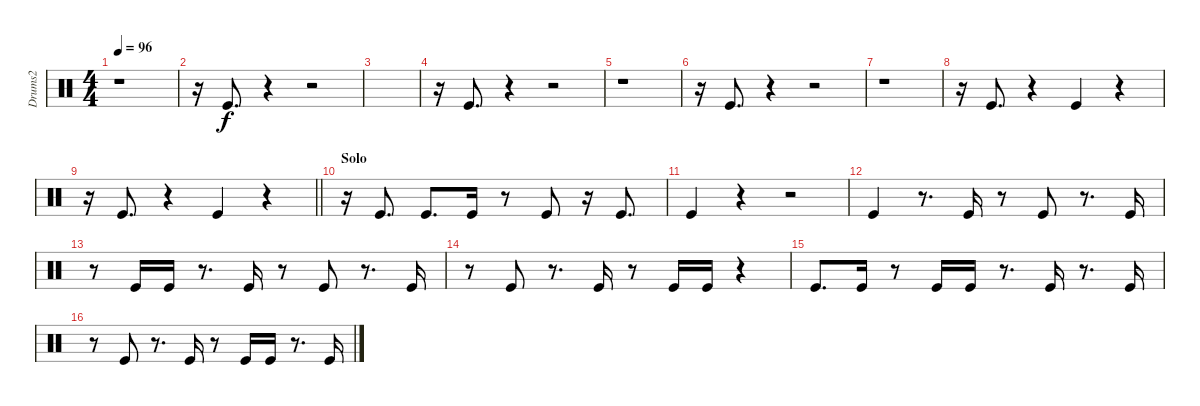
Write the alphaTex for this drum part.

\track ("Drums2" "Drums2") {instrument percussion}
\staff {score}
\articulation defaults
\ts (4 4)
\tempo 96
\clef neutral
\ks c
r.1{dy f} |
r.16 "Kick (hit)".8{d} r.4 r.2 |
|
r.16 "Kick (hit)".8{d} r.4 r.2 |
r.1 |
r.16 "Kick (hit)".8{d} r.4 r.2 |
r.1 |
r.16 "Kick (hit)".8{d} r.4 "Kick (hit)".4 r.4 |
\barLineRight lightlight
r.16 "Kick (hit)".8{d} r.4 "Kick (hit)".4 r.4 |
\section ("" "Solo")
r.16 "Kick (hit)".8{d} "Kick (hit)".8{d} "Kick (hit)".16 r.8 "Kick (hit)".8 r.16 "Kick (hit)".8{d} |
"Kick (hit)".4 r.4 r.2 |
"Kick (hit)".4 r.8{d} "Kick (hit)".16 r.8 "Kick (hit)".8 r.8{d} "Kick (hit)".16 |
r.8 "Kick (hit)".16 "Kick (hit)".16 r.8{d} "Kick (hit)".16 r.8 "Kick (hit)".8 r.8{d} "Kick (hit)".16 |
r.8 "Kick (hit)".8 r.8{d} "Kick (hit)".16 r.8 "Kick (hit)".16 "Kick (hit)".16 r.4 |
"Kick (hit)".8{d} "Kick (hit)".16 r.8 "Kick (hit)".16 "Kick (hit)".16 r.8{d} "Kick (hit)".16 r.8{d} "Kick (hit)".16 |
r.8 "Kick (hit)".8 r.8{d} "Kick (hit)".16 r.8 "Kick (hit)".16 "Kick (hit)".16 r.8{d} "Kick (hit)".16
